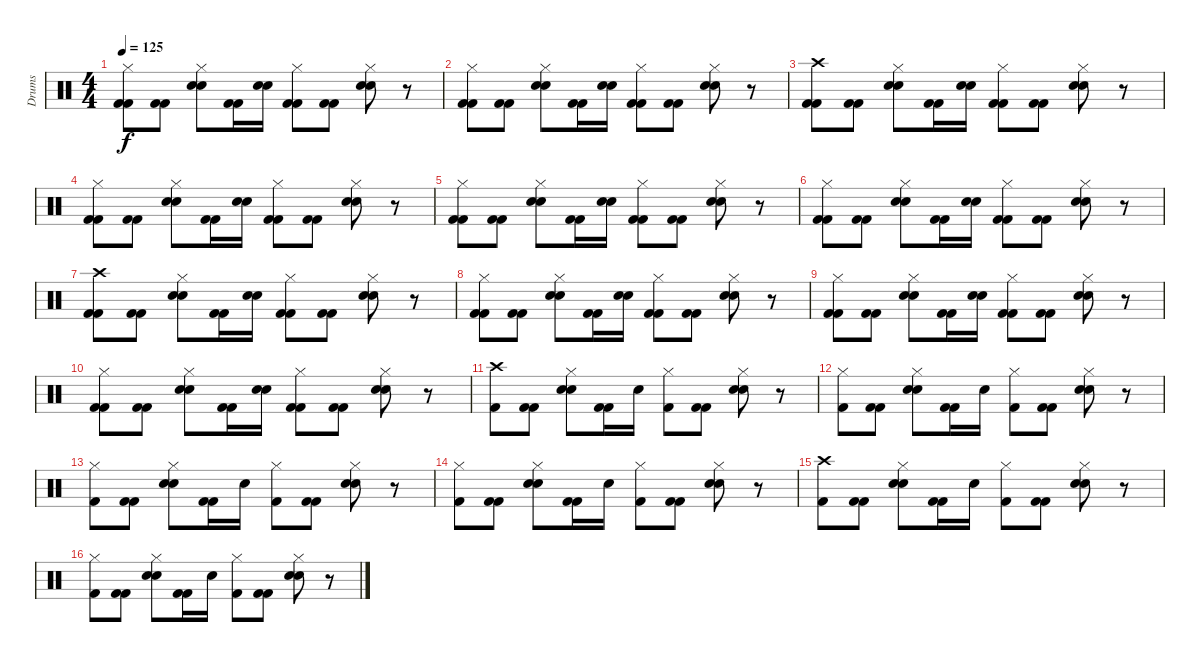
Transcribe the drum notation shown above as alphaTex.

\track ("Drums" "Drums") {instrument percussion}
\staff {score}
\articulation defaults
\ts (4 4)
\tempo 125
\clef neutral
\ks c
("Hi-Hat (closed)" "Kick (hit) 2" "Kick (hit) 2").8{dy f} ("Kick (hit) 2" "Kick (hit) 2").8 ("Hi-Hat (closed)" "Hand Clap (hit)" "Snare (hit) 2").8 ("Kick (hit) 2" "Kick (hit) 2").16 ("Hand Clap (hit)" "Snare (hit) 2").16 ("Hi-Hat (closed)" "Kick (hit) 2" "Kick (hit) 2").8 ("Kick (hit) 2" "Kick (hit) 2").8 ("Hi-Hat (closed)" "Hand Clap (hit)" "Snare (hit) 2").8 r.8 |
("Hi-Hat (closed)" "Kick (hit) 2" "Kick (hit) 2").8 ("Kick (hit) 2" "Kick (hit) 2").8 ("Hi-Hat (closed)" "Hand Clap (hit)" "Snare (hit) 2").8 ("Kick (hit) 2" "Kick (hit) 2").16 ("Hand Clap (hit)" "Snare (hit) 2").16 ("Hi-Hat (closed)" "Kick (hit) 2" "Kick (hit) 2").8 ("Kick (hit) 2" "Kick (hit) 2").8 ("Hi-Hat (closed)" "Hand Clap (hit)" "Snare (hit) 2").8 r.8 |
("Crash high (hit)" "Kick (hit) 2" "Kick (hit) 2").8 ("Kick (hit) 2" "Kick (hit) 2").8 ("Hi-Hat (closed)" "Hand Clap (hit)" "Snare (hit) 2").8 ("Kick (hit) 2" "Kick (hit) 2").16 ("Hand Clap (hit)" "Snare (hit) 2").16 ("Hi-Hat (closed)" "Kick (hit) 2" "Kick (hit) 2").8 ("Kick (hit) 2" "Kick (hit) 2").8 ("Hi-Hat (closed)" "Hand Clap (hit)" "Snare (hit) 2").8 r.8 |
("Hi-Hat (closed)" "Kick (hit) 2" "Kick (hit) 2").8 ("Kick (hit) 2" "Kick (hit) 2").8 ("Hi-Hat (closed)" "Hand Clap (hit)" "Snare (hit) 2").8 ("Kick (hit) 2" "Kick (hit) 2").16 ("Hand Clap (hit)" "Snare (hit) 2").16 ("Hi-Hat (closed)" "Kick (hit) 2" "Kick (hit) 2").8 ("Kick (hit) 2" "Kick (hit) 2").8 ("Hi-Hat (closed)" "Hand Clap (hit)" "Snare (hit) 2").8 r.8 |
("Hi-Hat (closed)" "Kick (hit) 2" "Kick (hit) 2").8 ("Kick (hit) 2" "Kick (hit) 2").8 ("Hi-Hat (closed)" "Hand Clap (hit)" "Snare (hit) 2").8 ("Kick (hit) 2" "Kick (hit) 2").16 ("Hand Clap (hit)" "Snare (hit) 2").16 ("Hi-Hat (closed)" "Kick (hit) 2" "Kick (hit) 2").8 ("Kick (hit) 2" "Kick (hit) 2").8 ("Hi-Hat (closed)" "Hand Clap (hit)" "Snare (hit) 2").8 r.8 |
("Hi-Hat (closed)" "Kick (hit) 2" "Kick (hit) 2").8 ("Kick (hit) 2" "Kick (hit) 2").8 ("Hi-Hat (closed)" "Hand Clap (hit)" "Snare (hit) 2").8 ("Kick (hit) 2" "Kick (hit) 2").16 ("Hand Clap (hit)" "Snare (hit) 2").16 ("Hi-Hat (closed)" "Kick (hit) 2" "Kick (hit) 2").8 ("Kick (hit) 2" "Kick (hit) 2").8 ("Hi-Hat (closed)" "Hand Clap (hit)" "Snare (hit) 2").8 r.8 |
("Crash high (hit)" "Kick (hit) 2" "Kick (hit) 2").8 ("Kick (hit) 2" "Kick (hit) 2").8 ("Hi-Hat (closed)" "Hand Clap (hit)" "Snare (hit) 2").8 ("Kick (hit) 2" "Kick (hit) 2").16 ("Hand Clap (hit)" "Snare (hit) 2").16 ("Hi-Hat (closed)" "Kick (hit) 2" "Kick (hit) 2").8 ("Kick (hit) 2" "Kick (hit) 2").8 ("Hi-Hat (closed)" "Hand Clap (hit)" "Snare (hit) 2").8 r.8 |
("Hi-Hat (closed)" "Kick (hit) 2" "Kick (hit) 2").8 ("Kick (hit) 2" "Kick (hit) 2").8 ("Hi-Hat (closed)" "Hand Clap (hit)" "Snare (hit) 2").8 ("Kick (hit) 2" "Kick (hit) 2").16 ("Hand Clap (hit)" "Snare (hit) 2").16 ("Hi-Hat (closed)" "Kick (hit) 2" "Kick (hit) 2").8 ("Kick (hit) 2" "Kick (hit) 2").8 ("Hi-Hat (closed)" "Hand Clap (hit)" "Snare (hit) 2").8 r.8 |
("Hi-Hat (closed)" "Kick (hit) 2" "Kick (hit) 2").8 ("Kick (hit) 2" "Kick (hit) 2").8 ("Hi-Hat (closed)" "Hand Clap (hit)" "Snare (hit) 2").8 ("Kick (hit) 2" "Kick (hit) 2").16 ("Hand Clap (hit)" "Snare (hit) 2").16 ("Hi-Hat (closed)" "Kick (hit) 2" "Kick (hit) 2").8 ("Kick (hit) 2" "Kick (hit) 2").8 ("Hi-Hat (closed)" "Hand Clap (hit)" "Snare (hit) 2").8 r.8 |
("Hi-Hat (closed)" "Kick (hit) 2" "Kick (hit) 2").8 ("Kick (hit) 2" "Kick (hit) 2").8 ("Hi-Hat (closed)" "Hand Clap (hit)" "Snare (hit) 2").8 ("Kick (hit) 2" "Kick (hit) 2").16 ("Hand Clap (hit)" "Snare (hit) 2").16 ("Hi-Hat (closed)" "Kick (hit) 2" "Kick (hit) 2").8 ("Kick (hit) 2" "Kick (hit) 2").8 ("Hi-Hat (closed)" "Hand Clap (hit)" "Snare (hit) 2").8 r.8 |
("Crash high (hit)" "Kick (hit) 2").8 ("Kick (hit) 2" "Kick (hit) 2").8 ("Hi-Hat (closed)" "Hand Clap (hit)" "Snare (hit) 2").8 ("Kick (hit) 2" "Kick (hit) 2").16 "Snare (hit) 2".16 ("Hi-Hat (closed)" "Kick (hit) 2").8 ("Kick (hit) 2" "Kick (hit) 2").8 ("Hi-Hat (closed)" "Hand Clap (hit)" "Snare (hit) 2").8 r.8 |
("Hi-Hat (closed)" "Kick (hit) 2").8 ("Kick (hit) 2" "Kick (hit) 2").8 ("Hi-Hat (closed)" "Hand Clap (hit)" "Snare (hit) 2").8 ("Kick (hit) 2" "Kick (hit) 2").16 "Snare (hit) 2".16 ("Hi-Hat (closed)" "Kick (hit) 2").8 ("Kick (hit) 2" "Kick (hit) 2").8 ("Hi-Hat (closed)" "Hand Clap (hit)" "Snare (hit) 2").8 r.8 |
("Hi-Hat (closed)" "Kick (hit) 2").8 ("Kick (hit) 2" "Kick (hit) 2").8 ("Hi-Hat (closed)" "Hand Clap (hit)" "Snare (hit) 2").8 ("Kick (hit) 2" "Kick (hit) 2").16 "Snare (hit) 2".16 ("Hi-Hat (closed)" "Kick (hit) 2").8 ("Kick (hit) 2" "Kick (hit) 2").8 ("Hi-Hat (closed)" "Hand Clap (hit)" "Snare (hit) 2").8 r.8 |
("Hi-Hat (closed)" "Kick (hit) 2").8 ("Kick (hit) 2" "Kick (hit) 2").8 ("Hi-Hat (closed)" "Hand Clap (hit)" "Snare (hit) 2").8 ("Kick (hit) 2" "Kick (hit) 2").16 "Snare (hit) 2".16 ("Hi-Hat (closed)" "Kick (hit) 2").8 ("Kick (hit) 2" "Kick (hit) 2").8 ("Hi-Hat (closed)" "Hand Clap (hit)" "Snare (hit) 2").8 r.8 |
("Crash high (hit)" "Kick (hit) 2").8 ("Kick (hit) 2" "Kick (hit) 2").8 ("Hi-Hat (closed)" "Hand Clap (hit)" "Snare (hit) 2").8 ("Kick (hit) 2" "Kick (hit) 2").16 "Snare (hit) 2".16 ("Hi-Hat (closed)" "Kick (hit) 2").8 ("Kick (hit) 2" "Kick (hit) 2").8 ("Hi-Hat (closed)" "Hand Clap (hit)" "Snare (hit) 2").8 r.8 |
("Hi-Hat (closed)" "Kick (hit) 2").8 ("Kick (hit) 2" "Kick (hit) 2").8 ("Hi-Hat (closed)" "Hand Clap (hit)" "Snare (hit) 2").8 ("Kick (hit) 2" "Kick (hit) 2").16 "Snare (hit) 2".16 ("Hi-Hat (closed)" "Kick (hit) 2").8 ("Kick (hit) 2" "Kick (hit) 2").8 ("Hi-Hat (closed)" "Hand Clap (hit)" "Snare (hit) 2").8 r.8
